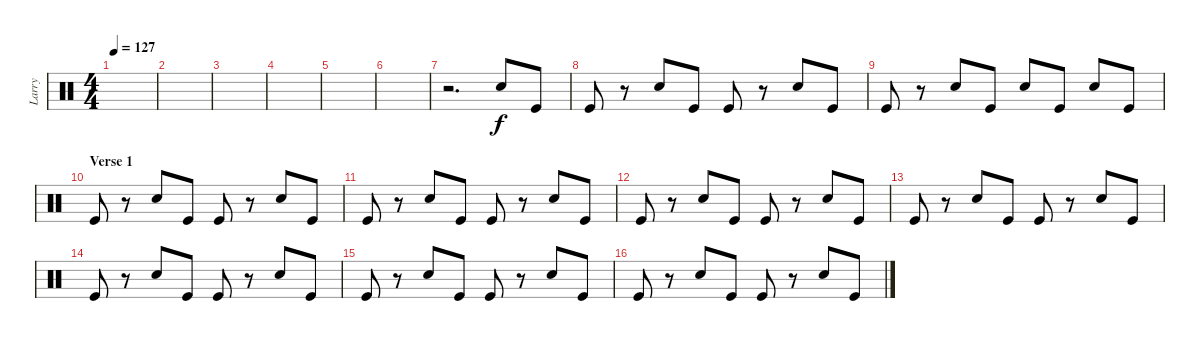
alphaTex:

\track ("Larry" "Larry") {instrument percussion}
\staff {score}
\articulation defaults
\ts (4 4)
\tempo 127
\clef neutral
\ks c
|
|
|
|
|
|
r.2{d} "Snare (hit) 2".8 "Kick (hit)".8 |
"Kick (hit)".8 r.8 "Snare (hit) 2".8 "Kick (hit)".8 "Kick (hit)".8 r.8 "Snare (hit) 2".8 "Kick (hit)".8 |
"Kick (hit)".8 r.8 "Snare (hit) 2".8 "Kick (hit)".8 "Snare (hit) 2".8 "Kick (hit)".8 "Snare (hit) 2".8 "Kick (hit)".8 |
\section ("" "Verse 1")
"Kick (hit)".8 r.8 "Snare (hit) 2".8 "Kick (hit)".8 "Kick (hit)".8 r.8 "Snare (hit) 2".8 "Kick (hit)".8 |
"Kick (hit)".8 r.8 "Snare (hit) 2".8 "Kick (hit)".8 "Kick (hit)".8 r.8 "Snare (hit) 2".8 "Kick (hit)".8 |
"Kick (hit)".8 r.8 "Snare (hit) 2".8 "Kick (hit)".8 "Kick (hit)".8 r.8 "Snare (hit) 2".8 "Kick (hit)".8 |
"Kick (hit)".8 r.8 "Snare (hit) 2".8 "Kick (hit)".8 "Kick (hit)".8 r.8 "Snare (hit) 2".8 "Kick (hit)".8 |
"Kick (hit)".8 r.8 "Snare (hit) 2".8 "Kick (hit)".8 "Kick (hit)".8 r.8 "Snare (hit) 2".8 "Kick (hit)".8 |
"Kick (hit)".8 r.8 "Snare (hit) 2".8 "Kick (hit)".8 "Kick (hit)".8 r.8 "Snare (hit) 2".8 "Kick (hit)".8 |
"Kick (hit)".8 r.8 "Snare (hit) 2".8 "Kick (hit)".8 "Kick (hit)".8 r.8 "Snare (hit) 2".8 "Kick (hit)".8
